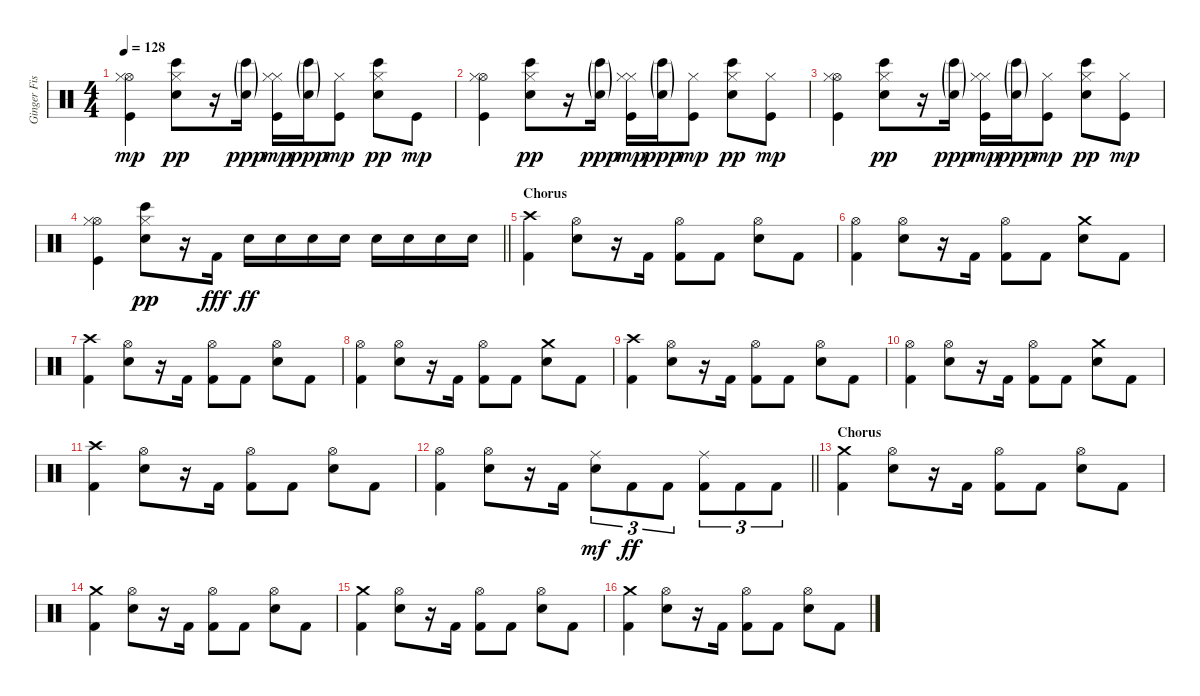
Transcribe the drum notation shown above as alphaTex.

\track ("Ginger Fish" "Ginger Fis") {instrument percussion}
\staff {score}
\articulation defaults
\ts (4 4)
\tempo 128
\clef neutral
\ks c
("Hi-Hat (open)" "Hi-Hat (closed)" "Kick (hit)").4{dy mp} ("Hi-Hat (closed)" "Bongo High (hit)" "Electric Snare (hit)").8{dy pp} r.16 ("Bongo High (hit)"{g} "Electric Snare (hit)"{g}).16{dy ppp} ("Hi-Hat (closed)" "Hi-Hat (closed)" "Kick (hit)").16{dy mp} ("Bongo High (hit)"{g} "Electric Snare (hit)"{g}).16{dy ppp} ("Hi-Hat (closed)" "Kick (hit)").8{dy mp} ("Hi-Hat (closed)" "Bongo High (hit)" "Electric Snare (hit)").8{dy pp} "Kick (hit)".8{dy mp} |
("Hi-Hat (open)" "Hi-Hat (closed)" "Kick (hit)").4 ("Hi-Hat (closed)" "Bongo High (hit)" "Electric Snare (hit)").8{dy pp} r.16 ("Bongo High (hit)"{g} "Electric Snare (hit)"{g}).16{dy ppp} ("Hi-Hat (closed)" "Hi-Hat (closed)" "Kick (hit)").16{dy mp} ("Bongo High (hit)"{g} "Electric Snare (hit)"{g}).16{dy ppp} ("Hi-Hat (closed)" "Kick (hit)").8{dy mp} ("Hi-Hat (closed)" "Bongo High (hit)" "Electric Snare (hit)").8{dy pp} ("Hi-Hat (closed)" "Kick (hit)").8{dy mp} |
("Hi-Hat (open)" "Hi-Hat (closed)" "Kick (hit)").4 ("Hi-Hat (closed)" "Bongo High (hit)" "Electric Snare (hit)").8{dy pp} r.16 ("Bongo High (hit)"{g} "Electric Snare (hit)"{g}).16{dy ppp} ("Hi-Hat (closed)" "Hi-Hat (closed)" "Kick (hit)").16{dy mp} ("Bongo High (hit)"{g} "Electric Snare (hit)"{g}).16{dy ppp} ("Hi-Hat (closed)" "Kick (hit)").8{dy mp} ("Hi-Hat (closed)" "Bongo High (hit)" "Electric Snare (hit)").8{dy pp} ("Hi-Hat (closed)" "Kick (hit)").8{dy mp} |
\barLineRight lightlight
("Hi-Hat (open)" "Hi-Hat (closed)" "Kick (hit)").4 ("Hi-Hat (closed)" "Bongo High (hit)" "Electric Snare (hit)").8{dy pp} r.16 "Kick (hit) 2".16{dy fff} "Electric Snare (hit)".16{dy ff} "Electric Snare (hit)".16 "Electric Snare (hit)".16 "Electric Snare (hit)".16 "Electric Snare (hit)".16 "Electric Snare (hit)".16 "Electric Snare (hit)".16 "Electric Snare (hit)".16 |
\section ("" "Chorus")
("Crash high (hit)" "Kick (hit) 2").4 ("Hi-Hat (open)" "Electric Snare (hit)").8 r.16 "Kick (hit) 2".16 ("Hi-Hat (open)" "Kick (hit) 2").8 "Kick (hit) 2".8 ("Hi-Hat (open)" "Electric Snare (hit)").8 "Kick (hit) 2".8 |
("Hi-Hat (open)" "Kick (hit) 2").4 ("Hi-Hat (open)" "Electric Snare (hit)").8 r.16 "Kick (hit) 2".16 ("Hi-Hat (open)" "Kick (hit) 2").8 "Kick (hit) 2".8 ("Crash medium (hit)" "Electric Snare (hit)").8 "Kick (hit) 2".8 |
("Crash high (hit)" "Kick (hit) 2").4 ("Hi-Hat (open)" "Electric Snare (hit)").8 r.16 "Kick (hit) 2".16 ("Hi-Hat (open)" "Kick (hit) 2").8 "Kick (hit) 2".8 ("Hi-Hat (open)" "Electric Snare (hit)").8 "Kick (hit) 2".8 |
("Hi-Hat (open)" "Kick (hit) 2").4 ("Hi-Hat (open)" "Electric Snare (hit)").8 r.16 "Kick (hit) 2".16 ("Hi-Hat (open)" "Kick (hit) 2").8 "Kick (hit) 2".8 ("Crash medium (hit)" "Electric Snare (hit)").8 "Kick (hit) 2".8 |
("Crash high (hit)" "Kick (hit) 2").4 ("Hi-Hat (open)" "Electric Snare (hit)").8 r.16 "Kick (hit) 2".16 ("Hi-Hat (open)" "Kick (hit) 2").8 "Kick (hit) 2".8 ("Hi-Hat (open)" "Electric Snare (hit)").8 "Kick (hit) 2".8 |
("Hi-Hat (open)" "Kick (hit) 2").4 ("Hi-Hat (open)" "Electric Snare (hit)").8 r.16 "Kick (hit) 2".16 ("Hi-Hat (open)" "Kick (hit) 2").8 "Kick (hit) 2".8 ("Crash medium (hit)" "Electric Snare (hit)").8 "Kick (hit) 2".8 |
("Crash high (hit)" "Kick (hit) 2").4 ("Hi-Hat (open)" "Electric Snare (hit)").8 r.16 "Kick (hit) 2".16 ("Hi-Hat (open)" "Kick (hit) 2").8 "Kick (hit) 2".8 ("Hi-Hat (open)" "Electric Snare (hit)").8 "Kick (hit) 2".8 |
\barLineRight lightlight
("Hi-Hat (open)" "Kick (hit) 2").4 ("Hi-Hat (open)" "Electric Snare (hit)").8 r.16 "Kick (hit) 2".16 ("Ride (middle)" "Electric Snare (hit)").8{tu (3 2) dy mf} "Kick (hit) 2".8{tu (3 2) dy ff} "Kick (hit) 2".8{tu (3 2)} ("Ride (middle)" "Kick (hit) 2").8{tu (3 2)} "Kick (hit) 2".8{tu (3 2)} "Kick (hit) 2".8{tu (3 2)} |
\section ("" "Chorus")
("Crash medium (hit)" "Kick (hit) 2").4 ("Hi-Hat (open)" "Electric Snare (hit)").8 r.16 "Kick (hit) 2".16 ("Hi-Hat (open)" "Kick (hit) 2").8 "Kick (hit) 2".8 ("Hi-Hat (open)" "Electric Snare (hit)").8 "Kick (hit) 2".8 |
("Crash medium (hit)" "Kick (hit) 2").4 ("Hi-Hat (open)" "Electric Snare (hit)").8 r.16 "Kick (hit) 2".16 ("Hi-Hat (open)" "Kick (hit) 2").8 "Kick (hit) 2".8 ("Hi-Hat (open)" "Electric Snare (hit)").8 "Kick (hit) 2".8 |
("Crash medium (hit)" "Kick (hit) 2").4 ("Hi-Hat (open)" "Electric Snare (hit)").8 r.16 "Kick (hit) 2".16 ("Hi-Hat (open)" "Kick (hit) 2").8 "Kick (hit) 2".8 ("Hi-Hat (open)" "Electric Snare (hit)").8 "Kick (hit) 2".8 |
("Crash medium (hit)" "Kick (hit) 2").4 ("Hi-Hat (open)" "Electric Snare (hit)").8 r.16 "Kick (hit) 2".16 ("Hi-Hat (open)" "Kick (hit) 2").8 "Kick (hit) 2".8 ("Hi-Hat (open)" "Electric Snare (hit)").8 "Kick (hit) 2".8
